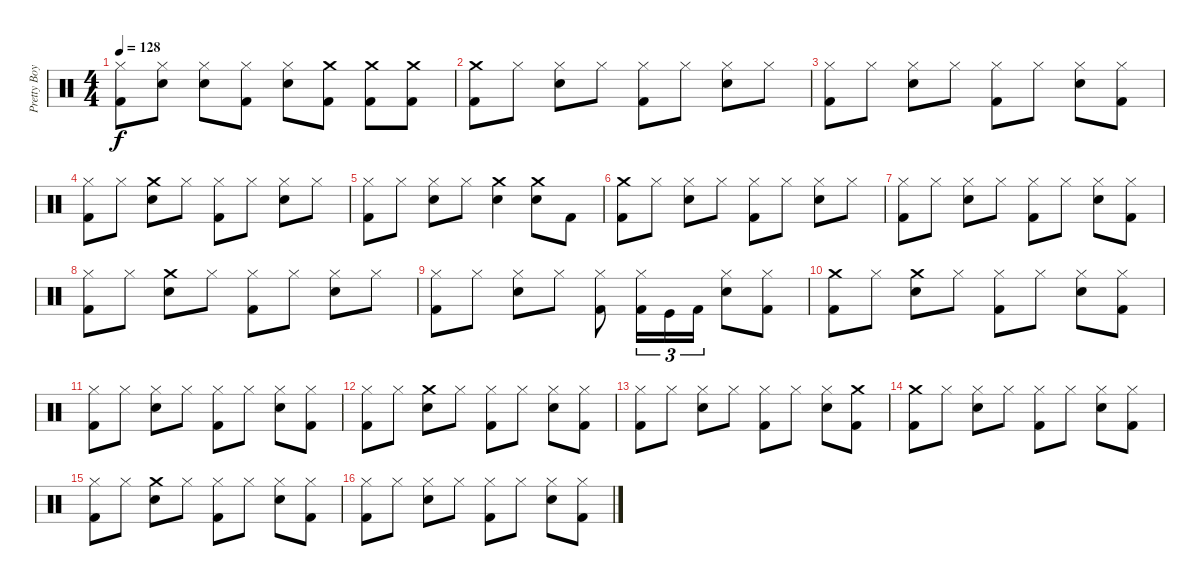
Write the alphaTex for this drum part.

\track ("Pretty Boy Geoff (Lars Drums)" "Pretty Boy") {instrument percussion}
\staff {score}
\articulation defaults
\ts (4 4)
\tempo 128
\clef neutral
\ks c
("Kick (hit) 2" "Hi-Hat (closed)").8{dy f} ("Snare (hit) 2" "Hi-Hat (closed)").8 ("Snare (hit) 2" "Hi-Hat (closed)").8 ("Hi-Hat (closed)" "Kick (hit) 2").8 ("Snare (hit) 2" "Hi-Hat (closed)").8 ("Crash medium (hit)" "Kick (hit) 2").8 ("Crash medium (hit)" "Kick (hit) 2").8 ("Crash medium (hit)" "Kick (hit) 2").8 |
("Crash medium (hit)" "Kick (hit) 2").8 "Hi-Hat (closed)".8 ("Snare (hit) 2" "Hi-Hat (closed)").8 "Hi-Hat (closed)".8 ("Hi-Hat (closed)" "Kick (hit) 2").8 "Hi-Hat (closed)".8 ("Snare (hit) 2" "Hi-Hat (closed)").8 "Hi-Hat (closed)".8 |
("Hi-Hat (closed)" "Kick (hit) 2").8 "Hi-Hat (closed)".8 ("Snare (hit) 2" "Hi-Hat (closed)").8 "Hi-Hat (closed)".8 ("Hi-Hat (closed)" "Kick (hit) 2").8 "Hi-Hat (closed)".8 ("Snare (hit) 2" "Hi-Hat (closed)").8 ("Hi-Hat (closed)" "Kick (hit) 2").8 |
("Hi-Hat (closed)" "Kick (hit) 2").8 "Hi-Hat (closed)".8 ("Crash medium (hit)" "Snare (hit) 2").8 "Hi-Hat (closed)".8 ("Hi-Hat (closed)" "Kick (hit) 2").8 "Hi-Hat (closed)".8 ("Snare (hit) 2" "Hi-Hat (closed)").8 "Hi-Hat (closed)".8 |
("Hi-Hat (closed)" "Kick (hit) 2").8 "Hi-Hat (closed)".8 ("Hi-Hat (closed)" "Snare (hit) 2").8 "Hi-Hat (closed)".8 ("Crash medium (hit)" "Snare (hit) 2").4 ("Crash medium (hit)" "Snare (hit) 2").8 "Kick (hit) 2".8 |
("Crash medium (hit)" "Kick (hit) 2").8 "Hi-Hat (closed)".8 ("Snare (hit) 2" "Hi-Hat (closed)").8 "Hi-Hat (closed)".8 ("Hi-Hat (closed)" "Kick (hit) 2").8 "Hi-Hat (closed)".8 ("Snare (hit) 2" "Hi-Hat (closed)").8 "Hi-Hat (closed)".8 |
("Hi-Hat (closed)" "Kick (hit) 2").8 "Hi-Hat (closed)".8 ("Snare (hit) 2" "Hi-Hat (closed)").8 "Hi-Hat (closed)".8 ("Hi-Hat (closed)" "Kick (hit) 2").8 "Hi-Hat (closed)".8 ("Snare (hit) 2" "Hi-Hat (closed)").8 ("Hi-Hat (closed)" "Kick (hit) 2").8 |
("Hi-Hat (closed)" "Kick (hit) 2").8 "Hi-Hat (closed)".8 ("Crash medium (hit)" "Snare (hit) 2").8 "Hi-Hat (closed)".8 ("Hi-Hat (closed)" "Kick (hit) 2").8 "Hi-Hat (closed)".8 ("Snare (hit) 2" "Hi-Hat (closed)").8 "Hi-Hat (closed)".8 |
("Kick (hit) 2" "Hi-Hat (closed)").8 "Hi-Hat (closed)".8 ("Hi-Hat (closed)" "Snare (hit) 2").8 "Hi-Hat (closed)".8 ("Kick (hit) 2" "Hi-Hat (closed)").8 ("Kick (hit) 2" "Hi-Hat (closed)").16{tu (3 2)} "Kick (hit)".16{tu (3 2)} "Kick (hit) 2".16{tu (3 2)} ("Snare (hit) 2" "Hi-Hat (closed)").8 ("Kick (hit) 2" "Hi-Hat (closed)").8 |
("Crash medium (hit)" "Kick (hit) 2").8 "Hi-Hat (closed)".8 ("Crash medium (hit)" "Snare (hit) 2").8 "Hi-Hat (closed)".8 ("Hi-Hat (closed)" "Kick (hit) 2").8 "Hi-Hat (closed)".8 ("Snare (hit) 2" "Hi-Hat (closed)").8 ("Kick (hit) 2" "Hi-Hat (closed)").8 |
("Hi-Hat (closed)" "Kick (hit) 2").8 "Hi-Hat (closed)".8 ("Snare (hit) 2" "Hi-Hat (closed)").8 "Hi-Hat (closed)".8 ("Hi-Hat (closed)" "Kick (hit) 2").8 "Hi-Hat (closed)".8 ("Snare (hit) 2" "Hi-Hat (closed)").8 ("Hi-Hat (closed)" "Kick (hit) 2").8 |
("Hi-Hat (closed)" "Kick (hit) 2").8 "Hi-Hat (closed)".8 ("Crash medium (hit)" "Snare (hit) 2").8 "Hi-Hat (closed)".8 ("Hi-Hat (closed)" "Kick (hit) 2").8 "Hi-Hat (closed)".8 ("Snare (hit) 2" "Hi-Hat (closed)").8 ("Kick (hit) 2" "Hi-Hat (closed)").8 |
("Kick (hit) 2" "Hi-Hat (closed)").8 "Hi-Hat (closed)".8 ("Snare (hit) 2" "Hi-Hat (closed)").8 "Hi-Hat (closed)".8 ("Kick (hit) 2" "Hi-Hat (closed)").8 "Hi-Hat (closed)".8 ("Snare (hit) 2" "Hi-Hat (closed)").8 ("Crash medium (hit)" "Kick (hit) 2").8 |
("Crash medium (hit)" "Kick (hit) 2").8 "Hi-Hat (closed)".8 ("Snare (hit) 2" "Hi-Hat (closed)").8 "Hi-Hat (closed)".8 ("Hi-Hat (closed)" "Kick (hit) 2").8 "Hi-Hat (closed)".8 ("Snare (hit) 2" "Hi-Hat (closed)").8 ("Kick (hit) 2" "Hi-Hat (closed)").8 |
("Hi-Hat (closed)" "Kick (hit) 2").8 "Hi-Hat (closed)".8 ("Crash medium (hit)" "Snare (hit) 2").8 "Hi-Hat (closed)".8 ("Hi-Hat (closed)" "Kick (hit) 2").8 "Hi-Hat (closed)".8 ("Snare (hit) 2" "Hi-Hat (closed)").8 ("Hi-Hat (closed)" "Kick (hit) 2").8 |
("Hi-Hat (closed)" "Kick (hit) 2").8 "Hi-Hat (closed)".8 ("Hi-Hat (closed)" "Snare (hit) 2").8 "Hi-Hat (closed)".8 ("Hi-Hat (closed)" "Kick (hit) 2").8 "Hi-Hat (closed)".8 ("Snare (hit) 2" "Hi-Hat (closed)").8 ("Kick (hit) 2" "Hi-Hat (closed)").8
